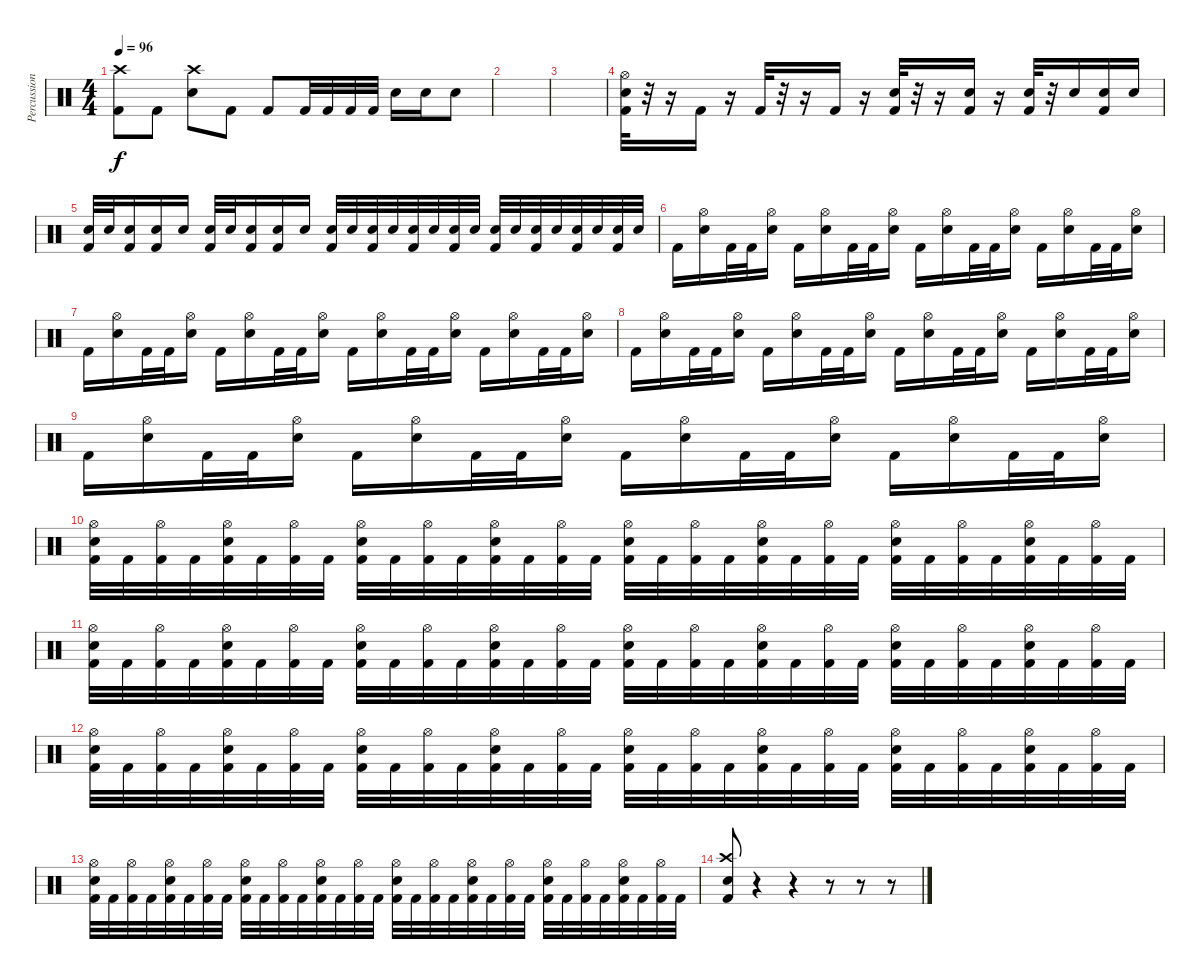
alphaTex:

\track ("Percussion" "Percussion") {instrument percussion}
\staff {score}
\articulation defaults
\ts (4 4)
\tempo 96
\clef neutral
\ks c
("Kick (hit) 2" "Crash high (hit)").8{dy f} "Kick (hit) 2".8 ("Electric Snare (hit)" "Crash high (hit)").8 "Kick (hit) 2".8 "Kick (hit) 2".8 "Kick (hit) 2".32 "Kick (hit) 2".32 "Kick (hit) 2".32 "Kick (hit) 2".32 "Electric Snare (hit)".16 "Electric Snare (hit)".16 "Electric Snare (hit)".8 |
|
|
("Kick (hit) 2" "Hi-Hat (open)" "Electric Snare (hit)").32 r.32 r.16 "Kick (hit) 2".16 r.16 "Kick (hit) 2".32 r.32 r.16 "Kick (hit) 2".16 r.16 ("Kick (hit) 2" "Electric Snare (hit)").32 r.32 r.16 ("Kick (hit) 2" "Electric Snare (hit)").16 r.16 ("Kick (hit) 2" "Electric Snare (hit)").32 r.32 "Electric Snare (hit)".16{volume 7} ("Kick (hit) 2" "Electric Snare (hit)").16{volume 8} "Electric Snare (hit)".16{volume 9} |
("Kick (hit) 2" "Electric Snare (hit)").32{volume 10} "Electric Snare (hit)".32 ("Kick (hit) 2" "Electric Snare (hit)").16 ("Kick (hit) 2" "Electric Snare (hit)").16{volume 13} "Electric Snare (hit)".16 ("Kick (hit) 2" "Electric Snare (hit)").32{volume 14} "Electric Snare (hit)".32 ("Kick (hit) 2" "Electric Snare (hit)").16 ("Kick (hit) 2" "Electric Snare (hit)").16{volume 15} "Electric Snare (hit)".16 ("Kick (hit) 2" "Electric Snare (hit)").32{volume 15} "Electric Snare (hit)".32 ("Kick (hit) 2" "Electric Snare (hit)").32 "Electric Snare (hit)".32 ("Kick (hit) 2" "Electric Snare (hit)").32 "Electric Snare (hit)".32 ("Kick (hit) 2" "Electric Snare (hit)").32 "Electric Snare (hit)".32 ("Kick (hit) 2" "Electric Snare (hit)").32 "Electric Snare (hit)".32 ("Kick (hit) 2" "Electric Snare (hit)").32 "Electric Snare (hit)".32 ("Kick (hit) 2" "Electric Snare (hit)").32 "Electric Snare (hit)".32 ("Kick (hit) 2" "Electric Snare (hit)").32 "Electric Snare (hit)".32 |
"Kick (hit) 2".16 ("Electric Snare (hit)" "Hi-Hat (open)").16 "Kick (hit) 2".32 "Kick (hit) 2".32 ("Electric Snare (hit)" "Hi-Hat (open)").16 "Kick (hit) 2".16 ("Electric Snare (hit)" "Hi-Hat (open)").16 "Kick (hit) 2".32 "Kick (hit) 2".32 ("Electric Snare (hit)" "Hi-Hat (open)").16 "Kick (hit) 2".16 ("Electric Snare (hit)" "Hi-Hat (open)").16 "Kick (hit) 2".32 "Kick (hit) 2".32 ("Electric Snare (hit)" "Hi-Hat (open)").16 "Kick (hit) 2".16 ("Electric Snare (hit)" "Hi-Hat (open)").16 "Kick (hit) 2".32 "Kick (hit) 2".32 ("Electric Snare (hit)" "Hi-Hat (open)").16 |
"Kick (hit) 2".16 ("Electric Snare (hit)" "Hi-Hat (open)").16 "Kick (hit) 2".32 "Kick (hit) 2".32 ("Electric Snare (hit)" "Hi-Hat (open)").16 "Kick (hit) 2".16 ("Electric Snare (hit)" "Hi-Hat (open)").16 "Kick (hit) 2".32 "Kick (hit) 2".32 ("Electric Snare (hit)" "Hi-Hat (open)").16 "Kick (hit) 2".16 ("Electric Snare (hit)" "Hi-Hat (open)").16 "Kick (hit) 2".32 "Kick (hit) 2".32 ("Electric Snare (hit)" "Hi-Hat (open)").16 "Kick (hit) 2".16 ("Electric Snare (hit)" "Hi-Hat (open)").16 "Kick (hit) 2".32 "Kick (hit) 2".32 ("Electric Snare (hit)" "Hi-Hat (open)").16 |
"Kick (hit) 2".16 ("Electric Snare (hit)" "Hi-Hat (open)").16 "Kick (hit) 2".32 "Kick (hit) 2".32 ("Electric Snare (hit)" "Hi-Hat (open)").16 "Kick (hit) 2".16 ("Electric Snare (hit)" "Hi-Hat (open)").16 "Kick (hit) 2".32 "Kick (hit) 2".32 ("Electric Snare (hit)" "Hi-Hat (open)").16 "Kick (hit) 2".16 ("Electric Snare (hit)" "Hi-Hat (open)").16 "Kick (hit) 2".32 "Kick (hit) 2".32 ("Electric Snare (hit)" "Hi-Hat (open)").16 "Kick (hit) 2".16 ("Electric Snare (hit)" "Hi-Hat (open)").16 "Kick (hit) 2".32 "Kick (hit) 2".32 ("Electric Snare (hit)" "Hi-Hat (open)").16 |
"Kick (hit) 2".16 ("Electric Snare (hit)" "Hi-Hat (open)").16 "Kick (hit) 2".32 "Kick (hit) 2".32 ("Electric Snare (hit)" "Hi-Hat (open)").16 "Kick (hit) 2".16 ("Electric Snare (hit)" "Hi-Hat (open)").16 "Kick (hit) 2".32 "Kick (hit) 2".32 ("Electric Snare (hit)" "Hi-Hat (open)").16 "Kick (hit) 2".16 ("Electric Snare (hit)" "Hi-Hat (open)").16 "Kick (hit) 2".32 "Kick (hit) 2".32 ("Electric Snare (hit)" "Hi-Hat (open)").16 "Kick (hit) 2".16 ("Electric Snare (hit)" "Hi-Hat (open)").16 "Kick (hit) 2".32 "Kick (hit) 2".32 ("Electric Snare (hit)" "Hi-Hat (open)").16 |
("Kick (hit) 2" "Electric Snare (hit)" "Hi-Hat (open)").32 "Kick (hit) 2".32 ("Kick (hit) 2" "Hi-Hat (open)").32 "Kick (hit) 2".32 ("Kick (hit) 2" "Electric Snare (hit)" "Hi-Hat (open)").32 "Kick (hit) 2".32 ("Kick (hit) 2" "Hi-Hat (open)").32 "Kick (hit) 2".32 ("Kick (hit) 2" "Electric Snare (hit)" "Hi-Hat (open)").32 "Kick (hit) 2".32 ("Kick (hit) 2" "Hi-Hat (open)").32 "Kick (hit) 2".32 ("Kick (hit) 2" "Electric Snare (hit)" "Hi-Hat (open)").32 "Kick (hit) 2".32 ("Kick (hit) 2" "Hi-Hat (open)").32 "Kick (hit) 2".32 ("Kick (hit) 2" "Electric Snare (hit)" "Hi-Hat (open)").32 "Kick (hit) 2".32 ("Kick (hit) 2" "Hi-Hat (open)").32 "Kick (hit) 2".32 ("Kick (hit) 2" "Electric Snare (hit)" "Hi-Hat (open)").32 "Kick (hit) 2".32 ("Kick (hit) 2" "Hi-Hat (open)").32 "Kick (hit) 2".32 ("Kick (hit) 2" "Electric Snare (hit)" "Hi-Hat (open)").32 "Kick (hit) 2".32 ("Kick (hit) 2" "Hi-Hat (open)").32 "Kick (hit) 2".32 ("Kick (hit) 2" "Electric Snare (hit)" "Hi-Hat (open)").32 "Kick (hit) 2".32 ("Kick (hit) 2" "Hi-Hat (open)").32 "Kick (hit) 2".32 |
("Kick (hit) 2" "Electric Snare (hit)" "Hi-Hat (open)").32 "Kick (hit) 2".32 ("Kick (hit) 2" "Hi-Hat (open)").32 "Kick (hit) 2".32 ("Kick (hit) 2" "Electric Snare (hit)" "Hi-Hat (open)").32 "Kick (hit) 2".32 ("Kick (hit) 2" "Hi-Hat (open)").32 "Kick (hit) 2".32 ("Kick (hit) 2" "Electric Snare (hit)" "Hi-Hat (open)").32 "Kick (hit) 2".32 ("Kick (hit) 2" "Hi-Hat (open)").32 "Kick (hit) 2".32 ("Kick (hit) 2" "Electric Snare (hit)" "Hi-Hat (open)").32 "Kick (hit) 2".32 ("Kick (hit) 2" "Hi-Hat (open)").32 "Kick (hit) 2".32 ("Kick (hit) 2" "Electric Snare (hit)" "Hi-Hat (open)").32 "Kick (hit) 2".32 ("Kick (hit) 2" "Hi-Hat (open)").32 "Kick (hit) 2".32 ("Kick (hit) 2" "Electric Snare (hit)" "Hi-Hat (open)").32 "Kick (hit) 2".32 ("Kick (hit) 2" "Hi-Hat (open)").32 "Kick (hit) 2".32 ("Kick (hit) 2" "Electric Snare (hit)" "Hi-Hat (open)").32 "Kick (hit) 2".32 ("Kick (hit) 2" "Hi-Hat (open)").32 "Kick (hit) 2".32 ("Kick (hit) 2" "Electric Snare (hit)" "Hi-Hat (open)").32 "Kick (hit) 2".32 ("Kick (hit) 2" "Hi-Hat (open)").32 "Kick (hit) 2".32 |
("Kick (hit) 2" "Electric Snare (hit)" "Hi-Hat (open)").32 "Kick (hit) 2".32 ("Kick (hit) 2" "Hi-Hat (open)").32 "Kick (hit) 2".32 ("Kick (hit) 2" "Electric Snare (hit)" "Hi-Hat (open)").32 "Kick (hit) 2".32 ("Kick (hit) 2" "Hi-Hat (open)").32 "Kick (hit) 2".32 ("Kick (hit) 2" "Electric Snare (hit)" "Hi-Hat (open)").32 "Kick (hit) 2".32 ("Kick (hit) 2" "Hi-Hat (open)").32 "Kick (hit) 2".32 ("Kick (hit) 2" "Electric Snare (hit)" "Hi-Hat (open)").32 "Kick (hit) 2".32 ("Kick (hit) 2" "Hi-Hat (open)").32 "Kick (hit) 2".32 ("Kick (hit) 2" "Electric Snare (hit)" "Hi-Hat (open)").32 "Kick (hit) 2".32 ("Kick (hit) 2" "Hi-Hat (open)").32 "Kick (hit) 2".32 ("Kick (hit) 2" "Electric Snare (hit)" "Hi-Hat (open)").32 "Kick (hit) 2".32 ("Kick (hit) 2" "Hi-Hat (open)").32 "Kick (hit) 2".32 ("Kick (hit) 2" "Electric Snare (hit)" "Hi-Hat (open)").32 "Kick (hit) 2".32 ("Kick (hit) 2" "Hi-Hat (open)").32 "Kick (hit) 2".32 ("Kick (hit) 2" "Electric Snare (hit)" "Hi-Hat (open)").32 "Kick (hit) 2".32 ("Kick (hit) 2" "Hi-Hat (open)").32 "Kick (hit) 2".32 |
("Kick (hit) 2" "Electric Snare (hit)" "Hi-Hat (open)").32 "Kick (hit) 2".32 ("Kick (hit) 2" "Hi-Hat (open)").32 "Kick (hit) 2".32 ("Kick (hit) 2" "Electric Snare (hit)" "Hi-Hat (open)").32 "Kick (hit) 2".32 ("Kick (hit) 2" "Hi-Hat (open)").32 "Kick (hit) 2".32 ("Kick (hit) 2" "Electric Snare (hit)" "Hi-Hat (open)").32 "Kick (hit) 2".32 ("Kick (hit) 2" "Hi-Hat (open)").32 "Kick (hit) 2".32 ("Kick (hit) 2" "Electric Snare (hit)" "Hi-Hat (open)").32 "Kick (hit) 2".32 ("Kick (hit) 2" "Hi-Hat (open)").32 "Kick (hit) 2".32 ("Kick (hit) 2" "Electric Snare (hit)" "Hi-Hat (open)").32 "Kick (hit) 2".32 ("Kick (hit) 2" "Hi-Hat (open)").32 "Kick (hit) 2".32 ("Kick (hit) 2" "Electric Snare (hit)" "Hi-Hat (open)").32 "Kick (hit) 2".32 ("Kick (hit) 2" "Hi-Hat (open)").32 "Kick (hit) 2".32 ("Kick (hit) 2" "Electric Snare (hit)" "Hi-Hat (open)").32 "Kick (hit) 2".32 ("Kick (hit) 2" "Hi-Hat (open)").32 "Kick (hit) 2".32 ("Kick (hit) 2" "Electric Snare (hit)" "Hi-Hat (open)").32 "Kick (hit) 2".32 ("Kick (hit) 2" "Hi-Hat (open)").32 "Kick (hit) 2".32 |
("Kick (hit) 2" "Electric Snare (hit)" "Crash high (hit)").8 r.4 r.4 r.8 r.8 r.8
